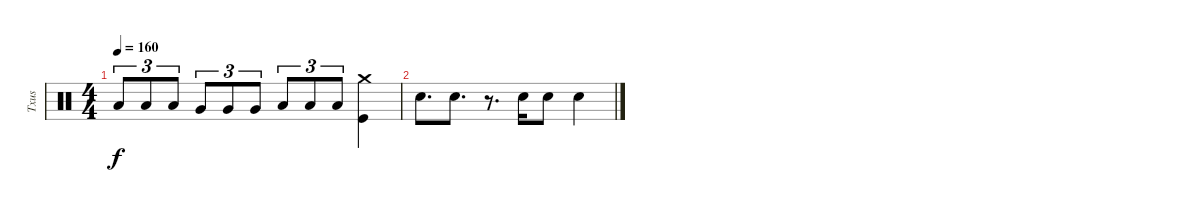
\track ("Txus" "Txus") {instrument percussion}
\staff {score}
\articulation defaults
\ts (4 4)
\tempo 160
\clef neutral
\ks c "Low Tom (hit)".8{tu (3 2) dy f} "Low Tom (hit)".8{tu (3 2)} "Low Tom (hit)".8{tu (3 2)} "Very Low Tom (hit)".8{tu (3 2)} "Very Low Tom (hit)".8{tu (3 2)} "Very Low Tom (hit)".8{tu (3 2)} "Low Floor Tom (hit)".8{tu (3 2)} "Low Floor Tom (hit)".8{tu (3 2)} "Low Floor Tom (hit)".8{tu (3 2)}
("Crash medium (hit)" "Kick (hit)").4 |
"Electric Snare (hit)".8{d} "Electric Snare (hit)".8{d} r.8{d} "Electric Snare (hit)".16 "Electric Snare (hit)".8 "Electric Snare (hit)".4
